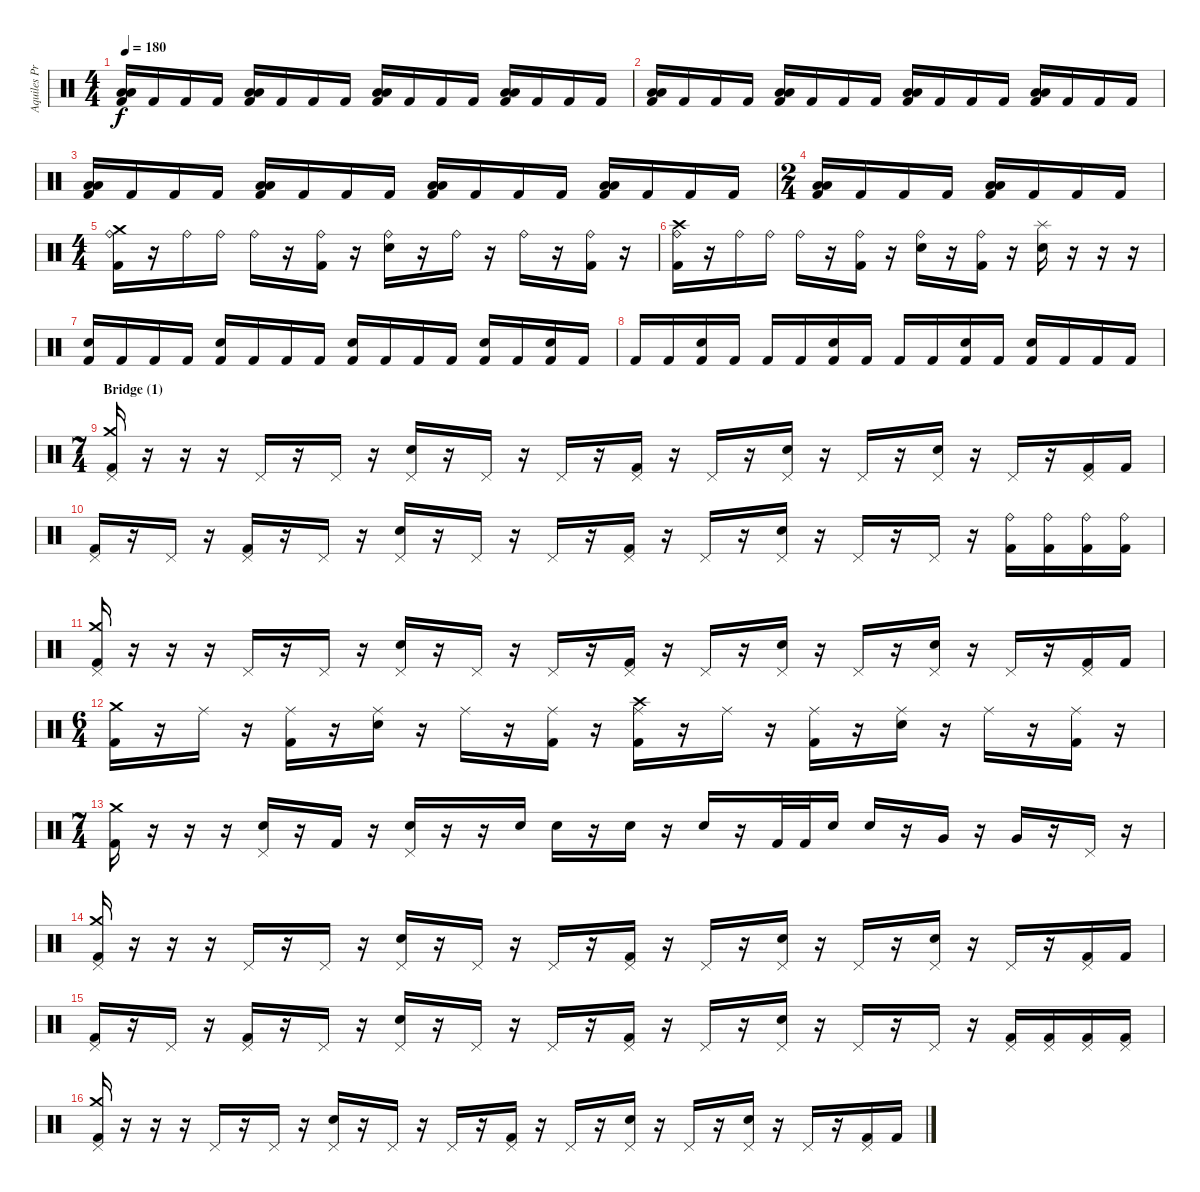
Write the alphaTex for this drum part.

\track ("Aquiles Priester" "Aquiles Pr") {instrument percussion}
\staff {score}
\articulation defaults
\ts (4 4)
\tempo 180
\clef neutral
\ks c
("Low Tom (hit)" "Low Floor Tom (hit)" "Kick (hit) 2").16{dy f} "Kick (hit) 2".16 "Kick (hit) 2".16 "Kick (hit) 2".16 ("Low Tom (hit)" "Low Floor Tom (hit)" "Kick (hit) 2").16 "Kick (hit) 2".16 "Kick (hit) 2".16 "Kick (hit) 2".16 ("Low Tom (hit)" "Low Floor Tom (hit)" "Kick (hit) 2").16 "Kick (hit) 2".16 "Kick (hit) 2".16 "Kick (hit) 2".16 ("Low Tom (hit)" "Low Floor Tom (hit)" "Kick (hit) 2").16 "Kick (hit) 2".16 "Kick (hit) 2".16 "Kick (hit) 2".16 |
("Low Tom (hit)" "Low Floor Tom (hit)" "Kick (hit) 2").16 "Kick (hit) 2".16 "Kick (hit) 2".16 "Kick (hit) 2".16 ("Low Tom (hit)" "Low Floor Tom (hit)" "Kick (hit) 2").16 "Kick (hit) 2".16 "Kick (hit) 2".16 "Kick (hit) 2".16 ("Low Tom (hit)" "Low Floor Tom (hit)" "Kick (hit) 2").16 "Kick (hit) 2".16 "Kick (hit) 2".16 "Kick (hit) 2".16 ("Low Tom (hit)" "Low Floor Tom (hit)" "Kick (hit) 2").16 "Kick (hit) 2".16 "Kick (hit) 2".16 "Kick (hit) 2".16 |
("Low Tom (hit)" "Low Floor Tom (hit)" "Kick (hit) 2").16 "Kick (hit) 2".16 "Kick (hit) 2".16 "Kick (hit) 2".16 ("Low Tom (hit)" "Low Floor Tom (hit)" "Kick (hit) 2").16 "Kick (hit) 2".16 "Kick (hit) 2".16 "Kick (hit) 2".16 ("Low Tom (hit)" "Low Floor Tom (hit)" "Kick (hit) 2").16 "Kick (hit) 2".16 "Kick (hit) 2".16 "Kick (hit) 2".16 ("Low Tom (hit)" "Low Floor Tom (hit)" "Kick (hit) 2").16 "Kick (hit) 2".16 "Kick (hit) 2".16 "Kick (hit) 2".16 |
\ts (2 4)
("Low Tom (hit)" "Low Floor Tom (hit)" "Kick (hit) 2").16 "Kick (hit) 2".16 "Kick (hit) 2".16 "Kick (hit) 2".16 ("Low Tom (hit)" "Low Floor Tom (hit)" "Kick (hit) 2").16 "Kick (hit) 2".16 "Kick (hit) 2".16 "Kick (hit) 2".16 |
\ts (4 4)
("Crash medium (hit)" "Ride (bell)" "Kick (hit) 2").16 r.16 "Ride (bell)".16 "Ride (bell)".16 "Ride (bell)".16 r.16 ("Ride (bell)" "Kick (hit) 2").16 r.16 ("Ride (bell)" "Snare (hit) 2").16 r.16 "Ride (bell)".16 r.16 "Ride (bell)".16 r.16 ("Ride (bell)" "Kick (hit) 2").16 r.16 |
("Crash high (hit)" "Ride (bell)" "Kick (hit) 2").16 r.16 "Ride (bell)".16 "Ride (bell)".16 "Ride (bell)".16 r.16 ("Ride (bell)" "Kick (hit) 2").16 r.16 ("Ride (bell)" "Snare (hit) 2").16 r.16 ("Ride (bell)" "Kick (hit) 2").16 r.16 ("Splash (hit)" "Snare (hit) 2").16 r.16 r.16 r.16 |
("Snare (hit) 2" "Kick (hit) 2").16 "Kick (hit) 2".16 "Kick (hit) 2".16 "Kick (hit) 2".16 ("Snare (hit) 2" "Kick (hit) 2").16 "Kick (hit) 2".16 "Kick (hit) 2".16 "Kick (hit) 2".16 ("Snare (hit) 2" "Kick (hit) 2").16 "Kick (hit) 2".16 "Kick (hit) 2".16 "Kick (hit) 2".16 ("Snare (hit) 2" "Kick (hit) 2").16 "Kick (hit) 2".16 ("Snare (hit) 2" "Kick (hit) 2").16 "Kick (hit) 2".16 |
"Kick (hit) 2".16 "Kick (hit) 2".16 ("Snare (hit) 2" "Kick (hit) 2").16 "Kick (hit) 2".16 "Kick (hit) 2".16 "Kick (hit) 2".16 ("Snare (hit) 2" "Kick (hit) 2").16 "Kick (hit) 2".16 "Kick (hit) 2".16 "Kick (hit) 2".16 ("Snare (hit) 2" "Kick (hit) 2").16 "Kick (hit) 2".16 ("Snare (hit) 2" "Kick (hit) 2").16 "Kick (hit) 2".16 "Kick (hit) 2".16 "Kick (hit) 2".16 |
\ts (7 4)
\section ("" "Bridge (1)")
("Crash medium (hit)" "Pedal Hi-Hat (hit)" "Kick (hit) 2").16 r.16 r.16 r.16 "Pedal Hi-Hat (hit)".16 r.16 "Pedal Hi-Hat (hit)".16 r.16 ("Pedal Hi-Hat (hit)" "Snare (hit) 2").16 r.16 "Pedal Hi-Hat (hit)".16 r.16 "Pedal Hi-Hat (hit)".16 r.16 ("Pedal Hi-Hat (hit)" "Kick (hit) 2").16 r.16 "Pedal Hi-Hat (hit)".16 r.16 ("Pedal Hi-Hat (hit)" "Snare (hit) 2").16 r.16 "Pedal Hi-Hat (hit)".16 r.16 ("Pedal Hi-Hat (hit)" "Snare (hit) 2").16 r.16 "Pedal Hi-Hat (hit)".16 r.16 ("Pedal Hi-Hat (hit)" "Kick (hit) 2").16 "Kick (hit) 2".16 |
("Pedal Hi-Hat (hit)" "Kick (hit) 2").16 r.16 "Pedal Hi-Hat (hit)".16 r.16 ("Pedal Hi-Hat (hit)" "Kick (hit) 2").16 r.16 "Pedal Hi-Hat (hit)".16 r.16 ("Pedal Hi-Hat (hit)" "Snare (hit) 2").16 r.16 "Pedal Hi-Hat (hit)".16 r.16 "Pedal Hi-Hat (hit)".16 r.16 ("Pedal Hi-Hat (hit)" "Kick (hit) 2").16 r.16 "Pedal Hi-Hat (hit)".16 r.16 ("Pedal Hi-Hat (hit)" "Snare (hit) 2").16 r.16 "Pedal Hi-Hat (hit)".16 r.16 "Pedal Hi-Hat (hit)".16 r.16 ("Ride (bell)" "Kick (hit) 2").16 ("Ride (bell)" "Kick (hit) 2").16 ("Ride (bell)" "Kick (hit) 2").16 ("Ride (bell)" "Kick (hit) 2").16 |
("Crash medium (hit)" "Pedal Hi-Hat (hit)" "Kick (hit) 2").16 r.16 r.16 r.16 "Pedal Hi-Hat (hit)".16 r.16 "Pedal Hi-Hat (hit)".16 r.16 ("Pedal Hi-Hat (hit)" "Snare (hit) 2").16 r.16 "Pedal Hi-Hat (hit)".16 r.16 "Pedal Hi-Hat (hit)".16 r.16 ("Pedal Hi-Hat (hit)" "Kick (hit) 2").16 r.16 "Pedal Hi-Hat (hit)".16 r.16 ("Pedal Hi-Hat (hit)" "Snare (hit) 2").16 r.16 "Pedal Hi-Hat (hit)".16 r.16 ("Pedal Hi-Hat (hit)" "Snare (hit) 2").16 r.16 "Pedal Hi-Hat (hit)".16 r.16 ("Pedal Hi-Hat (hit)" "Kick (hit) 2").16 "Kick (hit) 2".16 |
\ts (6 4)
("Crash medium (hit)" "Kick (hit) 2").16 r.16 "Ride (middle)".16 r.16 ("Ride (middle)" "Kick (hit) 2").16 r.16 ("Ride (middle)" "Snare (hit) 2").16 r.16 "Ride (middle)".16 r.16 ("Ride (middle)" "Kick (hit) 2").16 r.16 ("Crash high (hit)" "Ride (middle)" "Kick (hit) 2").16 r.16 "Ride (middle)".16 r.16 ("Ride (middle)" "Kick (hit) 2").16 r.16 ("Ride (middle)" "Snare (hit) 2").16 r.16 "Ride (middle)".16 r.16 ("Ride (middle)" "Kick (hit) 2").16 r.16 |
\ts (7 4)
("Crash medium (hit)" "Kick (hit) 2").16 r.16 r.16 r.16 ("Pedal Hi-Hat (hit)" "Snare (hit) 2").16 r.16 "Kick (hit) 2".16 r.16 ("Pedal Hi-Hat (hit)" "Snare (hit) 2").16 r.16 r.16 "Snare (hit) 2".16 "Snare (hit) 2".16 r.16 "Snare (hit) 2".16 r.16 "Snare (hit) 2".16 r.16 "Kick (hit) 2".32 "Kick (hit) 2".32 "Snare (hit) 2".16 "Snare (hit) 2".16 r.16 "Very Low Tom (hit)".16 r.16 "Very Low Tom (hit)".16 r.16 "Pedal Hi-Hat (hit)".16 r.16 |
("Crash medium (hit)" "Pedal Hi-Hat (hit)" "Kick (hit) 2").16 r.16 r.16 r.16 "Pedal Hi-Hat (hit)".16 r.16 "Pedal Hi-Hat (hit)".16 r.16 ("Pedal Hi-Hat (hit)" "Snare (hit) 2").16 r.16 "Pedal Hi-Hat (hit)".16 r.16 "Pedal Hi-Hat (hit)".16 r.16 ("Pedal Hi-Hat (hit)" "Kick (hit) 2").16 r.16 "Pedal Hi-Hat (hit)".16 r.16 ("Pedal Hi-Hat (hit)" "Snare (hit) 2").16 r.16 "Pedal Hi-Hat (hit)".16 r.16 ("Pedal Hi-Hat (hit)" "Snare (hit) 2").16 r.16 "Pedal Hi-Hat (hit)".16 r.16 ("Pedal Hi-Hat (hit)" "Kick (hit) 2").16 "Kick (hit) 2".16 |
("Pedal Hi-Hat (hit)" "Kick (hit) 2").16 r.16 "Pedal Hi-Hat (hit)".16 r.16 ("Pedal Hi-Hat (hit)" "Kick (hit) 2").16 r.16 "Pedal Hi-Hat (hit)".16 r.16 ("Pedal Hi-Hat (hit)" "Snare (hit) 2").16 r.16 "Pedal Hi-Hat (hit)".16 r.16 "Pedal Hi-Hat (hit)".16 r.16 ("Pedal Hi-Hat (hit)" "Kick (hit) 2").16 r.16 "Pedal Hi-Hat (hit)".16 r.16 ("Pedal Hi-Hat (hit)" "Snare (hit) 2").16 r.16 "Pedal Hi-Hat (hit)".16 r.16 "Pedal Hi-Hat (hit)".16 r.16 ("Pedal Hi-Hat (hit)" "Kick (hit) 2").16 ("Pedal Hi-Hat (hit)" "Kick (hit) 2").16 ("Pedal Hi-Hat (hit)" "Kick (hit) 2").16 ("Pedal Hi-Hat (hit)" "Kick (hit) 2").16 |
("Crash medium (hit)" "Pedal Hi-Hat (hit)" "Kick (hit) 2").16 r.16 r.16 r.16 "Pedal Hi-Hat (hit)".16 r.16 "Pedal Hi-Hat (hit)".16 r.16 ("Pedal Hi-Hat (hit)" "Snare (hit) 2").16 r.16 "Pedal Hi-Hat (hit)".16 r.16 "Pedal Hi-Hat (hit)".16 r.16 ("Pedal Hi-Hat (hit)" "Kick (hit) 2").16 r.16 "Pedal Hi-Hat (hit)".16 r.16 ("Pedal Hi-Hat (hit)" "Snare (hit) 2").16 r.16 "Pedal Hi-Hat (hit)".16 r.16 ("Pedal Hi-Hat (hit)" "Snare (hit) 2").16 r.16 "Pedal Hi-Hat (hit)".16 r.16 ("Pedal Hi-Hat (hit)" "Kick (hit) 2").16 "Kick (hit) 2".16
